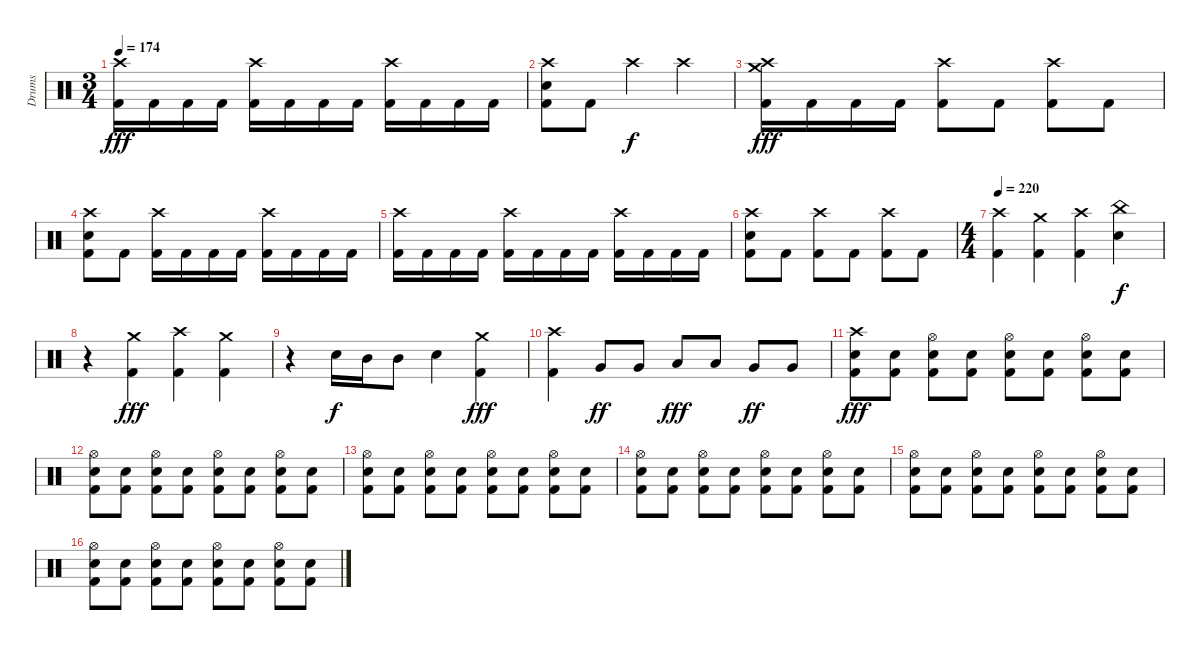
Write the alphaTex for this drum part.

\track ("Drums" "Drums") {instrument percussion}
\staff {score}
\articulation defaults
\ts (3 4)
\tempo 174
\clef neutral
\ks c
("Crash high (hit)" "Kick (hit) 2").16{dy fff} "Kick (hit) 2".16 "Kick (hit) 2".16 "Kick (hit) 2".16 ("Crash high (hit)" "Kick (hit) 2").16 "Kick (hit) 2".16 "Kick (hit) 2".16 "Kick (hit) 2".16 ("Crash high (hit)" "Kick (hit) 2").16 "Kick (hit) 2".16 "Kick (hit) 2".16 "Kick (hit) 2".16 |
("Crash high (hit)" "Snare (hit) 2" "Kick (hit) 2").8 "Kick (hit) 2".8 "Crash high (hit)".4{dy f} "Crash high (hit)".4 |
("Crash medium (hit)" "Crash high (hit)" "Kick (hit) 2").16{dy fff} "Kick (hit) 2".16 "Kick (hit) 2".16 "Kick (hit) 2".16 ("Crash high (hit)" "Kick (hit) 2").8 "Kick (hit) 2".8 ("Crash high (hit)" "Kick (hit) 2").8 "Kick (hit) 2".8 |
("Crash high (hit)" "Snare (hit) 2" "Kick (hit) 2").8 "Kick (hit) 2".8 ("Crash high (hit)" "Kick (hit) 2").16 "Kick (hit) 2".16 "Kick (hit) 2".16 "Kick (hit) 2".16 ("Crash high (hit)" "Kick (hit) 2").16 "Kick (hit) 2".16 "Kick (hit) 2".16 "Kick (hit) 2".16 |
("Crash high (hit)" "Kick (hit) 2").16 "Kick (hit) 2".16 "Kick (hit) 2".16 "Kick (hit) 2".16 ("Crash high (hit)" "Kick (hit) 2").16 "Kick (hit) 2".16 "Kick (hit) 2".16 "Kick (hit) 2".16 ("Crash high (hit)" "Kick (hit) 2").16 "Kick (hit) 2".16 "Kick (hit) 2".16 "Kick (hit) 2".16 |
("Crash high (hit)" "Snare (hit) 2" "Kick (hit) 2").8 "Kick (hit) 2".8 ("Crash high (hit)" "Kick (hit) 2").8 "Kick (hit) 2".8 ("Crash high (hit)" "Kick (hit) 2").8 "Kick (hit) 2".8 |
\ts (4 4)
\tempo 220
("Crash high (hit)" "Kick (hit) 2").4 ("Crash medium (hit)" "Kick (hit) 2").4 ("Crash high (hit)" "Kick (hit) 2").4 ("China (hit)" "Snare (hit) 2").4{dy f} |
r.4 ("Crash medium (hit)" "Kick (hit) 2").4{dy fff} ("Crash high (hit)" "Kick (hit) 2").4 ("Crash medium (hit)" "Kick (hit) 2").4 |
r.4 "Snare (hit) 2".16{dy f} "Mid Tom (hit)".16 "Mid Tom (hit)".8 "Snare (hit) 2".4 ("Crash medium (hit)" "Kick (hit) 2").4{dy fff} |
("Crash high (hit)" "Kick (hit) 2").4 "Very Low Tom (hit)".8{dy ff} "Very Low Tom (hit)".8 "Low Floor Tom (hit)".8{dy fff} "Low Floor Tom (hit)".8 "Very Low Tom (hit)".8{dy ff} "Very Low Tom (hit)".8 |
("Crash high (hit)" "Snare (hit) 2" "Kick (hit) 2").8{dy fff} ("Snare (hit) 2" "Kick (hit) 2").8 ("Hi-Hat (open)" "Snare (hit) 2" "Kick (hit) 2").8 ("Snare (hit) 2" "Kick (hit) 2").8 ("Hi-Hat (open)" "Snare (hit) 2" "Kick (hit) 2").8 ("Snare (hit) 2" "Kick (hit) 2").8 ("Hi-Hat (open)" "Snare (hit) 2" "Kick (hit) 2").8 ("Snare (hit) 2" "Kick (hit) 2").8 |
("Hi-Hat (open)" "Snare (hit) 2" "Kick (hit) 2").8 ("Snare (hit) 2" "Kick (hit) 2").8 ("Hi-Hat (open)" "Snare (hit) 2" "Kick (hit) 2").8 ("Snare (hit) 2" "Kick (hit) 2").8 ("Hi-Hat (open)" "Snare (hit) 2" "Kick (hit) 2").8 ("Snare (hit) 2" "Kick (hit) 2").8 ("Hi-Hat (open)" "Snare (hit) 2" "Kick (hit) 2").8 ("Snare (hit) 2" "Kick (hit) 2").8 |
("Hi-Hat (open)" "Snare (hit) 2" "Kick (hit) 2").8 ("Snare (hit) 2" "Kick (hit) 2").8 ("Hi-Hat (open)" "Snare (hit) 2" "Kick (hit) 2").8 ("Snare (hit) 2" "Kick (hit) 2").8 ("Hi-Hat (open)" "Snare (hit) 2" "Kick (hit) 2").8 ("Snare (hit) 2" "Kick (hit) 2").8 ("Hi-Hat (open)" "Snare (hit) 2" "Kick (hit) 2").8 ("Snare (hit) 2" "Kick (hit) 2").8 |
("Hi-Hat (open)" "Snare (hit) 2" "Kick (hit) 2").8 ("Snare (hit) 2" "Kick (hit) 2").8 ("Hi-Hat (open)" "Snare (hit) 2" "Kick (hit) 2").8 ("Snare (hit) 2" "Kick (hit) 2").8 ("Hi-Hat (open)" "Snare (hit) 2" "Kick (hit) 2").8 ("Snare (hit) 2" "Kick (hit) 2").8 ("Hi-Hat (open)" "Snare (hit) 2" "Kick (hit) 2").8 ("Snare (hit) 2" "Kick (hit) 2").8 |
("Hi-Hat (open)" "Snare (hit) 2" "Kick (hit) 2").8 ("Snare (hit) 2" "Kick (hit) 2").8 ("Hi-Hat (open)" "Snare (hit) 2" "Kick (hit) 2").8 ("Snare (hit) 2" "Kick (hit) 2").8 ("Hi-Hat (open)" "Snare (hit) 2" "Kick (hit) 2").8 ("Snare (hit) 2" "Kick (hit) 2").8 ("Hi-Hat (open)" "Snare (hit) 2" "Kick (hit) 2").8 ("Snare (hit) 2" "Kick (hit) 2").8 |
("Hi-Hat (open)" "Snare (hit) 2" "Kick (hit) 2").8 ("Snare (hit) 2" "Kick (hit) 2").8 ("Hi-Hat (open)" "Snare (hit) 2" "Kick (hit) 2").8 ("Snare (hit) 2" "Kick (hit) 2").8 ("Hi-Hat (open)" "Snare (hit) 2" "Kick (hit) 2").8 ("Snare (hit) 2" "Kick (hit) 2").8 ("Hi-Hat (open)" "Snare (hit) 2" "Kick (hit) 2").8 ("Snare (hit) 2" "Kick (hit) 2").8
